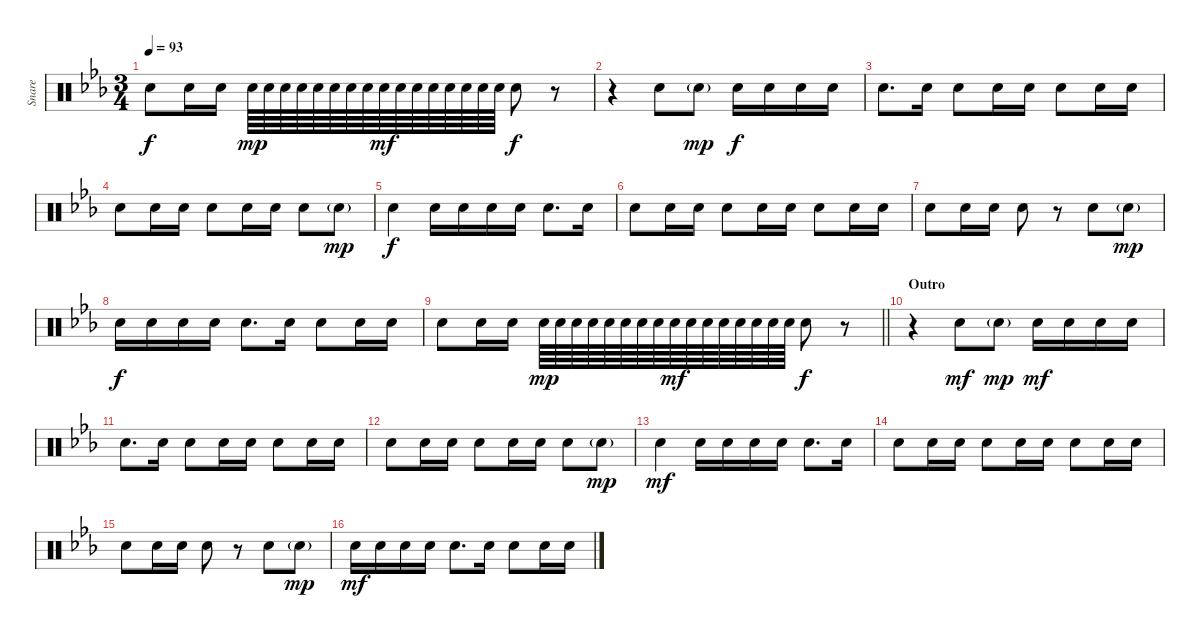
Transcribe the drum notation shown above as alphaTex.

\track ("Snare" "Snare") {instrument percussion}
\staff {score}
\articulation defaults
\ts (3 4)
\tempo 93
\clef neutral
\ks cminor "Electric Snare (hit)".8{dy f} "Electric Snare (hit)".16 "Electric Snare (hit)".16 "Electric Snare (hit)".64{dy mp} "Electric Snare (hit)".64 "Electric Snare (hit)".64 "Electric Snare (hit)".64 "Electric Snare (hit)".64 "Electric Snare (hit)".64 "Electric Snare (hit)".64 "Electric Snare (hit)".64 "Electric Snare (hit)".64{dy mf} "Electric Snare (hit)".64 "Electric Snare (hit)".64 "Electric Snare (hit)".64 "Electric Snare (hit)".64 "Electric Snare (hit)".64 "Electric Snare (hit)".64 "Electric Snare (hit)".64 "Electric Snare (hit)".8{dy f}
r.8 |
r.4 "Electric Snare (hit)".8 "Electric Snare (hit)"{g}.8{dy mp} "Electric Snare (hit)".16{dy f} "Electric Snare (hit)".16 "Electric Snare (hit)".16 "Electric Snare (hit)".16 |
"Electric Snare (hit)".8{d} "Electric Snare (hit)".16 "Electric Snare (hit)".8 "Electric Snare (hit)".16 "Electric Snare (hit)".16 "Electric Snare (hit)".8 "Electric Snare (hit)".16 "Electric Snare (hit)".16 |
"Electric Snare (hit)".8 "Electric Snare (hit)".16 "Electric Snare (hit)".16 "Electric Snare (hit)".8 "Electric Snare (hit)".16 "Electric Snare (hit)".16 "Electric Snare (hit)".8 "Electric Snare (hit)"{g}.8{dy mp} |
"Electric Snare (hit)".4{dy f} "Electric Snare (hit)".16 "Electric Snare (hit)".16 "Electric Snare (hit)".16 "Electric Snare (hit)".16 "Electric Snare (hit)".8{d} "Electric Snare (hit)".16 |
"Electric Snare (hit)".8 "Electric Snare (hit)".16 "Electric Snare (hit)".16 "Electric Snare (hit)".8 "Electric Snare (hit)".16 "Electric Snare (hit)".16 "Electric Snare (hit)".8 "Electric Snare (hit)".16 "Electric Snare (hit)".16 |
"Electric Snare (hit)".8 "Electric Snare (hit)".16 "Electric Snare (hit)".16 "Electric Snare (hit)".8 r.8 "Electric Snare (hit)".8 "Electric Snare (hit)"{g}.8{dy mp} |
"Electric Snare (hit)".16{dy f} "Electric Snare (hit)".16 "Electric Snare (hit)".16 "Electric Snare (hit)".16 "Electric Snare (hit)".8{d} "Electric Snare (hit)".16 "Electric Snare (hit)".8 "Electric Snare (hit)".16 "Electric Snare (hit)".16 |
\barLineRight lightlight "Electric Snare (hit)".8 "Electric Snare (hit)".16 "Electric Snare (hit)".16 "Electric Snare (hit)".64{dy mp} "Electric Snare (hit)".64 "Electric Snare (hit)".64 "Electric Snare (hit)".64 "Electric Snare (hit)".64 "Electric Snare (hit)".64 "Electric Snare (hit)".64 "Electric Snare (hit)".64 "Electric Snare (hit)".64{dy mf} "Electric Snare (hit)".64 "Electric Snare (hit)".64 "Electric Snare (hit)".64 "Electric Snare (hit)".64 "Electric Snare (hit)".64 "Electric Snare (hit)".64 "Electric Snare (hit)".64 "Electric Snare (hit)".8{dy f}
r.8 |
\section ("" "Outro")
r.4 "Electric Snare (hit)".8{dy mf} "Electric Snare (hit)"{g}.8{dy mp} "Electric Snare (hit)".16{dy mf} "Electric Snare (hit)".16 "Electric Snare (hit)".16 "Electric Snare (hit)".16 |
"Electric Snare (hit)".8{d} "Electric Snare (hit)".16 "Electric Snare (hit)".8 "Electric Snare (hit)".16 "Electric Snare (hit)".16 "Electric Snare (hit)".8 "Electric Snare (hit)".16 "Electric Snare (hit)".16 |
"Electric Snare (hit)".8 "Electric Snare (hit)".16 "Electric Snare (hit)".16 "Electric Snare (hit)".8 "Electric Snare (hit)".16 "Electric Snare (hit)".16 "Electric Snare (hit)".8 "Electric Snare (hit)"{g}.8{dy mp} |
"Electric Snare (hit)".4{dy mf} "Electric Snare (hit)".16 "Electric Snare (hit)".16 "Electric Snare (hit)".16 "Electric Snare (hit)".16 "Electric Snare (hit)".8{d} "Electric Snare (hit)".16 |
"Electric Snare (hit)".8 "Electric Snare (hit)".16 "Electric Snare (hit)".16 "Electric Snare (hit)".8 "Electric Snare (hit)".16 "Electric Snare (hit)".16 "Electric Snare (hit)".8 "Electric Snare (hit)".16 "Electric Snare (hit)".16 |
"Electric Snare (hit)".8 "Electric Snare (hit)".16 "Electric Snare (hit)".16 "Electric Snare (hit)".8 r.8 "Electric Snare (hit)".8 "Electric Snare (hit)"{g}.8{dy mp} |
"Electric Snare (hit)".16{dy mf} "Electric Snare (hit)".16 "Electric Snare (hit)".16 "Electric Snare (hit)".16 "Electric Snare (hit)".8{d} "Electric Snare (hit)".16 "Electric Snare (hit)".8 "Electric Snare (hit)".16 "Electric Snare (hit)".16
